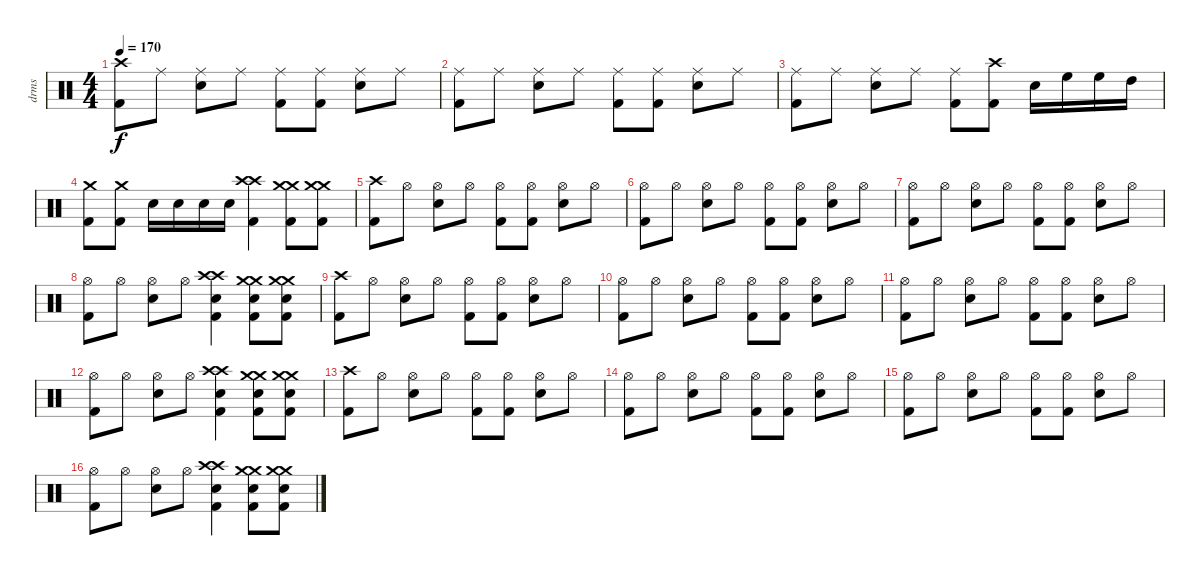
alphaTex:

\track ("drms" "drms") {instrument percussion}
\staff {score}
\articulation defaults
\ts (4 4)
\tempo 170
\clef neutral
\ks c
("Crash high (hit)" "Kick (hit) 2").8{dy f} "Ride (middle)".8 ("Ride (middle)" "Snare (hit) 2").8 "Ride (middle)".8 ("Ride (middle)" "Kick (hit) 2").8 ("Ride (middle)" "Kick (hit) 2").8 ("Ride (middle)" "Snare (hit) 2").8 "Ride (middle)".8 |
("Ride (middle)" "Kick (hit) 2").8 "Ride (middle)".8 ("Ride (middle)" "Snare (hit) 2").8 "Ride (middle)".8 ("Ride (middle)" "Kick (hit) 2").8 ("Ride (middle)" "Kick (hit) 2").8 ("Ride (middle)" "Snare (hit) 2").8 "Ride (middle)".8 |
("Ride (middle)" "Kick (hit) 2").8 "Ride (middle)".8 ("Ride (middle)" "Snare (hit) 2").8 "Ride (middle)".8 ("Ride (middle)" "Kick (hit) 2").8 ("Crash high (hit)" "Kick (hit) 2").8 "Snare (hit) 2".16 "High Floor Tom (hit)".16 "High Floor Tom (hit)".16 "High Tom (hit)".16 |
("Crash medium (hit)" "Kick (hit) 2").8 ("Crash medium (hit)" "Kick (hit) 2").8 "Snare (hit) 2".16 "Snare (hit) 2".16 "Snare (hit) 2".16 "Snare (hit) 2".16 ("Crash high (hit)" "Crash high (hit)" "Kick (hit) 2").4 ("Crash medium (hit)" "Crash medium (hit)" "Kick (hit) 2").8 ("Crash medium (hit)" "Crash medium (hit)" "Kick (hit) 2").8 |
("Crash high (hit)" "Kick (hit) 2").8 "Hi-Hat (open)".8 ("Hi-Hat (open)" "Snare (hit) 2").8 "Hi-Hat (open)".8 ("Hi-Hat (open)" "Kick (hit) 2").8 ("Hi-Hat (open)" "Kick (hit) 2").8 ("Hi-Hat (open)" "Snare (hit) 2").8 "Hi-Hat (open)".8 |
("Hi-Hat (open)" "Kick (hit) 2").8 "Hi-Hat (open)".8 ("Hi-Hat (open)" "Snare (hit) 2").8 "Hi-Hat (open)".8 ("Hi-Hat (open)" "Kick (hit) 2").8 ("Hi-Hat (open)" "Kick (hit) 2").8 ("Hi-Hat (open)" "Snare (hit) 2").8 "Hi-Hat (open)".8 |
("Hi-Hat (open)" "Kick (hit) 2").8 "Hi-Hat (open)".8 ("Hi-Hat (open)" "Snare (hit) 2").8 "Hi-Hat (open)".8 ("Hi-Hat (open)" "Kick (hit) 2").8 ("Hi-Hat (open)" "Kick (hit) 2").8 ("Hi-Hat (open)" "Snare (hit) 2").8 "Hi-Hat (open)".8 |
("Hi-Hat (open)" "Kick (hit) 2").8 "Hi-Hat (open)".8 ("Hi-Hat (open)" "Snare (hit) 2").8 "Hi-Hat (open)".8 ("Crash high (hit)" "Crash high (hit)" "Snare (hit) 2" "Kick (hit) 2").4 ("Crash medium (hit)" "Crash medium (hit)" "Snare (hit) 2" "Kick (hit) 2").8 ("Crash medium (hit)" "Crash medium (hit)" "Snare (hit) 2" "Kick (hit) 2").8 |
("Crash high (hit)" "Kick (hit) 2").8 "Hi-Hat (open)".8 ("Hi-Hat (open)" "Snare (hit) 2").8 "Hi-Hat (open)".8 ("Hi-Hat (open)" "Kick (hit) 2").8 ("Hi-Hat (open)" "Kick (hit) 2").8 ("Hi-Hat (open)" "Snare (hit) 2").8 "Hi-Hat (open)".8 |
("Hi-Hat (open)" "Kick (hit) 2").8 "Hi-Hat (open)".8 ("Hi-Hat (open)" "Snare (hit) 2").8 "Hi-Hat (open)".8 ("Hi-Hat (open)" "Kick (hit) 2").8 ("Hi-Hat (open)" "Kick (hit) 2").8 ("Hi-Hat (open)" "Snare (hit) 2").8 "Hi-Hat (open)".8 |
("Hi-Hat (open)" "Kick (hit) 2").8 "Hi-Hat (open)".8 ("Hi-Hat (open)" "Snare (hit) 2").8 "Hi-Hat (open)".8 ("Hi-Hat (open)" "Kick (hit) 2").8 ("Hi-Hat (open)" "Kick (hit) 2").8 ("Hi-Hat (open)" "Snare (hit) 2").8 "Hi-Hat (open)".8 |
("Hi-Hat (open)" "Kick (hit) 2").8 "Hi-Hat (open)".8 ("Hi-Hat (open)" "Snare (hit) 2").8 "Hi-Hat (open)".8 ("Crash high (hit)" "Crash high (hit)" "Snare (hit) 2" "Kick (hit) 2").4 ("Crash medium (hit)" "Crash medium (hit)" "Snare (hit) 2" "Kick (hit) 2").8 ("Crash medium (hit)" "Crash medium (hit)" "Snare (hit) 2" "Kick (hit) 2").8 |
("Crash high (hit)" "Kick (hit) 2").8 "Hi-Hat (open)".8 ("Hi-Hat (open)" "Snare (hit) 2").8 "Hi-Hat (open)".8 ("Hi-Hat (open)" "Kick (hit) 2").8 ("Hi-Hat (open)" "Kick (hit) 2").8 ("Hi-Hat (open)" "Snare (hit) 2").8 "Hi-Hat (open)".8 |
("Hi-Hat (open)" "Kick (hit) 2").8 "Hi-Hat (open)".8 ("Hi-Hat (open)" "Snare (hit) 2").8 "Hi-Hat (open)".8 ("Hi-Hat (open)" "Kick (hit) 2").8 ("Hi-Hat (open)" "Kick (hit) 2").8 ("Hi-Hat (open)" "Snare (hit) 2").8 "Hi-Hat (open)".8 |
("Hi-Hat (open)" "Kick (hit) 2").8 "Hi-Hat (open)".8 ("Hi-Hat (open)" "Snare (hit) 2").8 "Hi-Hat (open)".8 ("Hi-Hat (open)" "Kick (hit) 2").8 ("Hi-Hat (open)" "Kick (hit) 2").8 ("Hi-Hat (open)" "Snare (hit) 2").8 "Hi-Hat (open)".8 |
("Hi-Hat (open)" "Kick (hit) 2").8 "Hi-Hat (open)".8 ("Hi-Hat (open)" "Snare (hit) 2").8 "Hi-Hat (open)".8 ("Crash high (hit)" "Crash high (hit)" "Snare (hit) 2" "Kick (hit) 2").4 ("Crash medium (hit)" "Crash medium (hit)" "Snare (hit) 2" "Kick (hit) 2").8 ("Crash medium (hit)" "Crash medium (hit)" "Snare (hit) 2" "Kick (hit) 2").8
